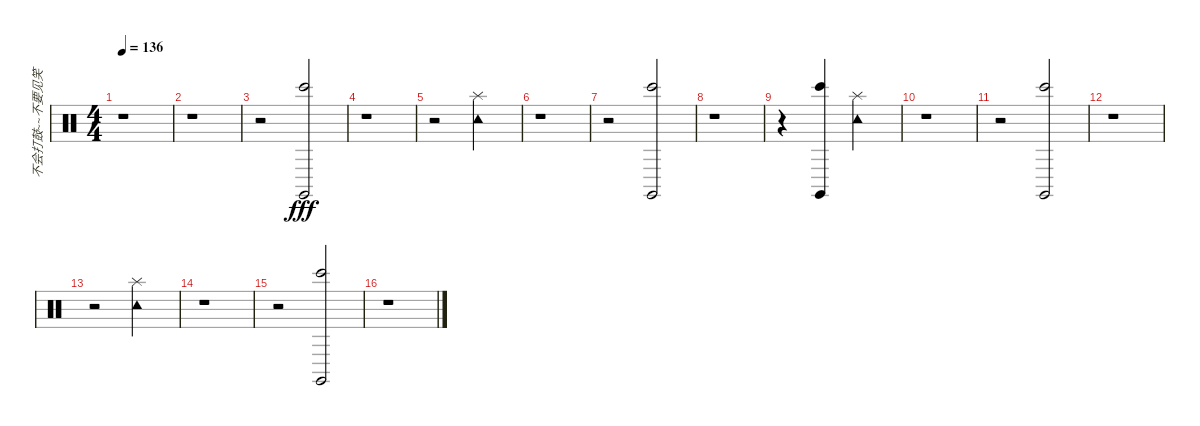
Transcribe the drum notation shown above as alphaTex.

\track ("不会打鼓~~不要见笑" "不会打鼓~~不要见笑") {instrument percussion}
\staff {score}
\articulation defaults
\ts (4 4)
\tempo 136
\clef neutral
\ks c
r.1{dy fff} |
r.1 |
r.2 ("Bongo High (hit)" "Claves (hit)").2 |
r.1 |
r.2 ("Tambourine (hit)" "Splash (hit)").2 |
r.1 |
r.2 ("Bongo High (hit)" "Claves (hit)").2 |
r.1 |
r.4 ("Bongo High (hit)" "Claves (hit)").4 ("Tambourine (hit)" "Splash (hit)").2 |
r.1 |
r.2 ("Bongo High (hit)" "Claves (hit)").2 |
r.1 |
r.2 ("Tambourine (hit)" "Splash (hit)").2 |
r.1 |
r.2 ("Bongo High (hit)" "Claves (hit)").2 |
r.1
